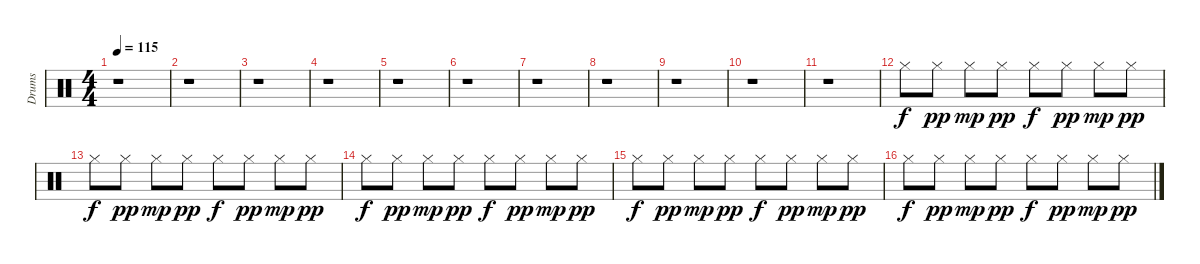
\track ("Drums" "Drums") {instrument percussion}
\staff {score}
\articulation defaults
\ts (4 4)
\tempo 115
\clef neutral
\ks c
r.1{dy f} |
r.1 |
r.1 |
r.1 |
r.1 |
r.1 |
r.1 |
r.1 |
r.1 |
r.1 |
r.1 |
"Hi-Hat (closed)".8 "Hi-Hat (closed)".8{dy pp} "Hi-Hat (closed)".8{dy mp} "Hi-Hat (closed)".8{dy pp} "Hi-Hat (closed)".8{dy f} "Hi-Hat (closed)".8{dy pp} "Hi-Hat (closed)".8{dy mp} "Hi-Hat (closed)".8{dy pp} |
"Hi-Hat (closed)".8{dy f} "Hi-Hat (closed)".8{dy pp} "Hi-Hat (closed)".8{dy mp} "Hi-Hat (closed)".8{dy pp} "Hi-Hat (closed)".8{dy f} "Hi-Hat (closed)".8{dy pp} "Hi-Hat (closed)".8{dy mp} "Hi-Hat (closed)".8{dy pp} |
"Hi-Hat (closed)".8{dy f} "Hi-Hat (closed)".8{dy pp} "Hi-Hat (closed)".8{dy mp} "Hi-Hat (closed)".8{dy pp} "Hi-Hat (closed)".8{dy f} "Hi-Hat (closed)".8{dy pp} "Hi-Hat (closed)".8{dy mp} "Hi-Hat (closed)".8{dy pp} |
"Hi-Hat (closed)".8{dy f} "Hi-Hat (closed)".8{dy pp} "Hi-Hat (closed)".8{dy mp} "Hi-Hat (closed)".8{dy pp} "Hi-Hat (closed)".8{dy f} "Hi-Hat (closed)".8{dy pp} "Hi-Hat (closed)".8{dy mp} "Hi-Hat (closed)".8{dy pp} |
"Hi-Hat (closed)".8{dy f} "Hi-Hat (closed)".8{dy pp} "Hi-Hat (closed)".8{dy mp} "Hi-Hat (closed)".8{dy pp} "Hi-Hat (closed)".8{dy f} "Hi-Hat (closed)".8{dy pp} "Hi-Hat (closed)".8{dy mp} "Hi-Hat (closed)".8{dy pp}
